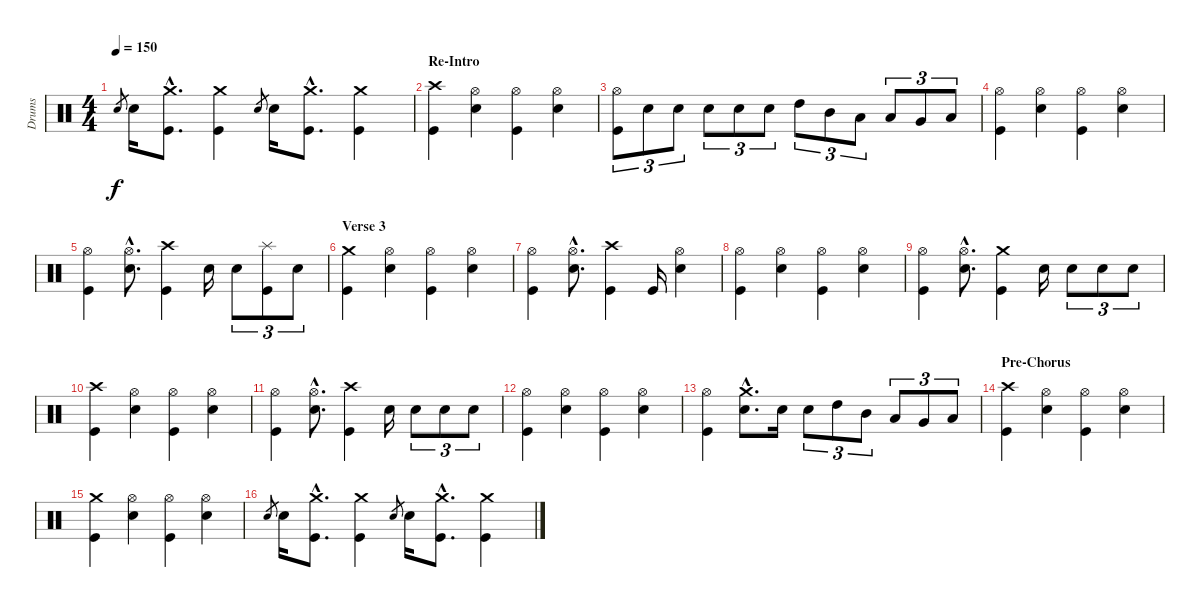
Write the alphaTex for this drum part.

\track ("Drums" "Drums") {instrument percussion}
\staff {score}
\articulation defaults
\ts (4 4)
\tempo 150
\clef neutral
\ks c "Snare (hit) 2".8{gr dy f} "Snare (hit) 2".16
("Crash medium (hit)"{hac} "Kick (hit)"{hac}).8{d} ("Crash medium (hit)" "Kick (hit)").4 "Snare (hit) 2".8{gr} "Snare (hit) 2".16 ("Crash medium (hit)"{hac} "Kick (hit)"{hac}).8{d} ("Crash medium (hit)" "Kick (hit)").4 |
\section ("" "Re-Intro")
("Crash high (hit)" "Kick (hit)").4 ("Hi-Hat (open)" "Snare (hit) 2").4 ("Hi-Hat (open)" "Kick (hit)").4 ("Hi-Hat (open)" "Snare (hit) 2").4 |
("Hi-Hat (open)" "Kick (hit)").8{tu (3 2)} "Snare (hit) 2".8{tu (3 2)} "Snare (hit) 2".8{tu (3 2)} "Snare (hit) 2".8{tu (3 2)} "Snare (hit) 2".8{tu (3 2)} "Snare (hit) 2".8{tu (3 2)} "High Tom (hit)".8{tu (3 2)} "Mid Tom (hit)".8{tu (3 2)} "Low Tom (hit)".8{tu (3 2)} "Low Tom (hit)".8{tu (3 2)} "Very Low Tom (hit)".8{tu (3 2)} "Low Floor Tom (hit)".8{tu (3 2)} |
("Hi-Hat (open)" "Kick (hit)").4 ("Hi-Hat (open)" "Snare (hit) 2").4 ("Hi-Hat (open)" "Kick (hit)").4 ("Hi-Hat (open)" "Snare (hit) 2").4 |
("Hi-Hat (open)" "Kick (hit)").4 ("Hi-Hat (open)"{hac} "Snare (hit) 2"{hac}).8{d} ("Crash high (hit)" "Kick (hit)").4 "Snare (hit) 2".16 "Snare (hit) 2".8{tu (3 2)} ("Splash (hit)" "Kick (hit)").8{tu (3 2)} "Snare (hit) 2".8{tu (3 2)} |
\section ("" "Verse 3")
("Crash medium (hit)" "Kick (hit)").4 ("Hi-Hat (open)" "Snare (hit) 2").4 ("Hi-Hat (open)" "Kick (hit)").4 ("Hi-Hat (open)" "Snare (hit) 2").4 |
("Hi-Hat (open)" "Kick (hit)").4 ("Hi-Hat (open)"{hac} "Snare (hit) 2"{hac}).8{d} ("Crash high (hit)" "Kick (hit)").4 "Kick (hit)".16 ("Hi-Hat (open)" "Snare (hit) 2").4 |
("Hi-Hat (open)" "Kick (hit)").4 ("Hi-Hat (open)" "Snare (hit) 2").4 ("Hi-Hat (open)" "Kick (hit)").4 ("Hi-Hat (open)" "Snare (hit) 2").4 |
("Hi-Hat (open)" "Kick (hit)").4 ("Hi-Hat (open)"{hac} "Snare (hit) 2"{hac}).8{d} ("Crash medium (hit)" "Kick (hit)").4 "Snare (hit) 2".16 "Snare (hit) 2".8{tu (3 2)} "Snare (hit) 2".8{tu (3 2)} "Snare (hit) 2".8{tu (3 2)} |
("Crash high (hit)" "Kick (hit)").4 ("Hi-Hat (open)" "Snare (hit) 2").4 ("Hi-Hat (open)" "Kick (hit)").4 ("Hi-Hat (open)" "Snare (hit) 2").4 |
("Hi-Hat (open)" "Kick (hit)").4 ("Hi-Hat (open)"{hac} "Snare (hit) 2"{hac}).8{d} ("Crash high (hit)" "Kick (hit)").4 "Snare (hit) 2".16 "Snare (hit) 2".8{tu (3 2)} "Snare (hit) 2".8{tu (3 2)} "Snare (hit) 2".8{tu (3 2)} |
("Hi-Hat (open)" "Kick (hit)").4 ("Hi-Hat (open)" "Snare (hit) 2").4 ("Hi-Hat (open)" "Kick (hit)").4 ("Hi-Hat (open)" "Snare (hit) 2").4 |
("Hi-Hat (open)" "Kick (hit)").4 ("Crash medium (hit)"{hac} "Snare (hit) 2"{hac}).8{d} "Snare (hit) 2".16 "Snare (hit) 2".8{tu (3 2)} "High Tom (hit)".8{tu (3 2)} "Mid Tom (hit)".8{tu (3 2)} "Low Tom (hit)".8{tu (3 2)} "Very Low Tom (hit)".8{tu (3 2)} "Low Floor Tom (hit)".8{tu (3 2)} |
\section ("" "Pre-Chorus")
("Crash high (hit)" "Kick (hit)").4 ("Hi-Hat (open)" "Snare (hit) 2").4 ("Hi-Hat (open)" "Kick (hit)").4 ("Hi-Hat (open)" "Snare (hit) 2").4 |
("Crash medium (hit)" "Kick (hit)").4 ("Hi-Hat (open)" "Snare (hit) 2").4 ("Hi-Hat (open)" "Kick (hit)").4 ("Hi-Hat (open)" "Snare (hit) 2").4 |
"Snare (hit) 2".8{gr} "Snare (hit) 2".16 ("Crash medium (hit)"{hac} "Kick (hit)"{hac}).8{d} ("Crash medium (hit)" "Kick (hit)").4 "Snare (hit) 2".8{gr} "Snare (hit) 2".16 ("Crash medium (hit)"{hac} "Kick (hit)"{hac}).8{d} ("Crash medium (hit)" "Kick (hit)").4
